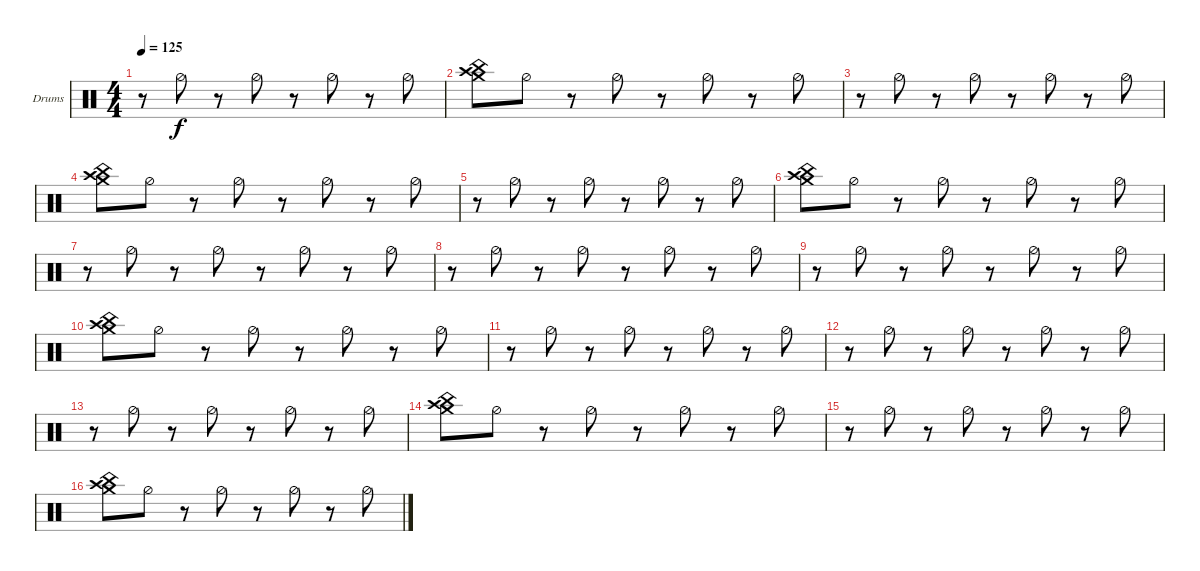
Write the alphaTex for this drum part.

\defaultSystemsLayout 4
\bracketExtendMode groupsimilarinstruments
\firstSystemTrackNameOrientation horizontal
\otherSystemsTrackNameOrientation horizontal
\track ("Drumkit" "Drums") {instrument percussion}
\staff {score}
\articulation defaults
\ts (4 4)
\tempo 125
\clef neutral
\ks c
r.8{dy f} "Hi-Hat (half)".8 r.8 "Hi-Hat (half)".8 r.8 "Hi-Hat (half)".8 r.8 "Hi-Hat (half)".8 |
("Crash medium (hit)" "Crash high (hit)" "China (hit)").8 "Hi-Hat (half)".8 r.8 "Hi-Hat (half)".8 r.8 "Hi-Hat (half)".8 r.8 "Hi-Hat (half)".8 |
r.8 "Hi-Hat (half)".8 r.8 "Hi-Hat (half)".8 r.8 "Hi-Hat (half)".8 r.8 "Hi-Hat (half)".8 |
("Crash medium (hit)" "Crash high (hit)" "China (hit)").8 "Hi-Hat (half)".8 r.8 "Hi-Hat (half)".8 r.8 "Hi-Hat (half)".8 r.8 "Hi-Hat (half)".8 |
r.8 "Hi-Hat (half)".8 r.8 "Hi-Hat (half)".8 r.8 "Hi-Hat (half)".8 r.8 "Hi-Hat (half)".8 |
("Crash medium (hit)" "Crash high (hit)" "China (hit)").8 "Hi-Hat (half)".8 r.8 "Hi-Hat (half)".8 r.8 "Hi-Hat (half)".8 r.8 "Hi-Hat (half)".8 |
r.8 "Hi-Hat (half)".8 r.8 "Hi-Hat (half)".8 r.8 "Hi-Hat (half)".8 r.8 "Hi-Hat (half)".8 |
r.8 "Hi-Hat (half)".8 r.8 "Hi-Hat (half)".8 r.8 "Hi-Hat (half)".8 r.8 "Hi-Hat (half)".8 |
r.8 "Hi-Hat (half)".8 r.8 "Hi-Hat (half)".8 r.8 "Hi-Hat (half)".8 r.8 "Hi-Hat (half)".8 |
("Crash medium (hit)" "Crash high (hit)" "China (hit)").8 "Hi-Hat (half)".8 r.8 "Hi-Hat (half)".8 r.8 "Hi-Hat (half)".8 r.8 "Hi-Hat (half)".8 |
r.8 "Hi-Hat (half)".8 r.8 "Hi-Hat (half)".8 r.8 "Hi-Hat (half)".8 r.8 "Hi-Hat (half)".8 |
r.8 "Hi-Hat (half)".8 r.8 "Hi-Hat (half)".8 r.8 "Hi-Hat (half)".8 r.8 "Hi-Hat (half)".8 |
r.8 "Hi-Hat (half)".8 r.8 "Hi-Hat (half)".8 r.8 "Hi-Hat (half)".8 r.8 "Hi-Hat (half)".8 |
("Crash medium (hit)" "Crash high (hit)" "China (hit)").8 "Hi-Hat (half)".8 r.8 "Hi-Hat (half)".8 r.8 "Hi-Hat (half)".8 r.8 "Hi-Hat (half)".8 |
r.8 "Hi-Hat (half)".8 r.8 "Hi-Hat (half)".8 r.8 "Hi-Hat (half)".8 r.8 "Hi-Hat (half)".8 |
("Crash medium (hit)" "Crash high (hit)" "China (hit)").8 "Hi-Hat (half)".8 r.8 "Hi-Hat (half)".8 r.8 "Hi-Hat (half)".8 r.8 "Hi-Hat (half)".8
